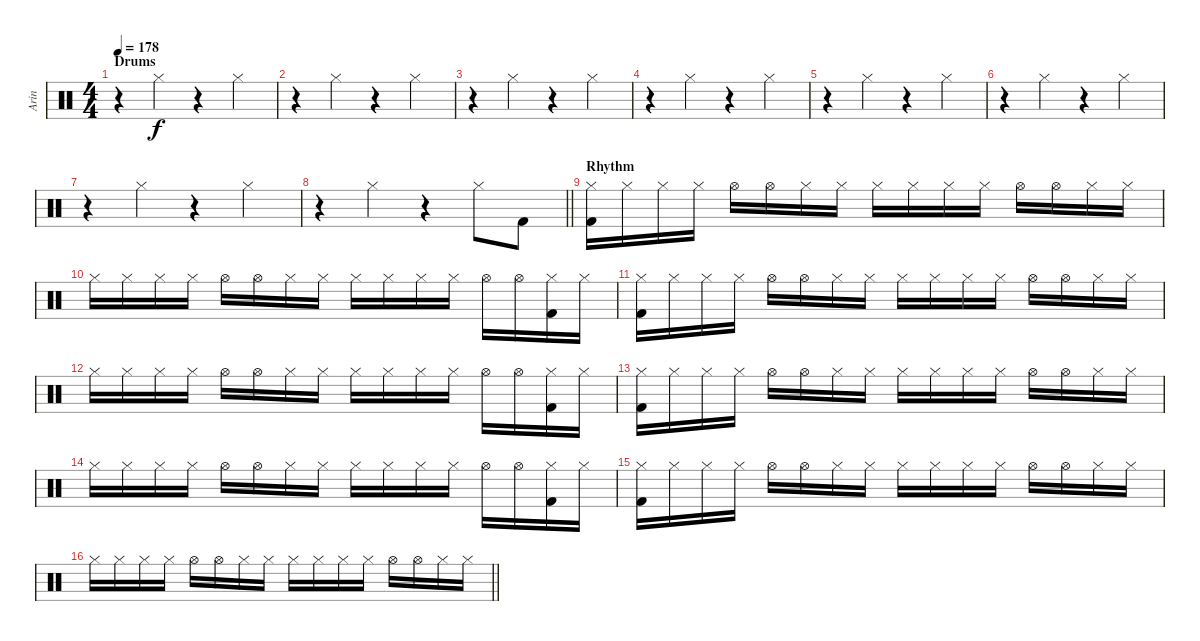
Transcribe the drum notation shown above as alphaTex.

\track ("Arin" "Arin") {instrument percussion}
\staff {score}
\articulation defaults
\ts (4 4)
\section ("" "Drums")
\tempo 178
\clef neutral
\ks c
r.4{dy f} "Hi-Hat (closed)".4 r.4 "Hi-Hat (closed)".4 |
r.4 "Hi-Hat (closed)".4 r.4 "Hi-Hat (closed)".4 |
r.4 "Hi-Hat (closed)".4 r.4 "Hi-Hat (closed)".4 |
r.4 "Hi-Hat (closed)".4 r.4 "Hi-Hat (closed)".4 |
r.4 "Hi-Hat (closed)".4 r.4 "Hi-Hat (closed)".4 |
r.4 "Hi-Hat (closed)".4 r.4 "Hi-Hat (closed)".4 |
r.4 "Hi-Hat (closed)".4 r.4 "Hi-Hat (closed)".4 |
\barLineRight lightlight
r.4 "Hi-Hat (closed)".4 r.4 "Hi-Hat (closed)".8 "Kick (hit) 2".8 |
\section ("" "Rhythm")
("Hi-Hat (closed)" "Kick (hit) 2").16 "Hi-Hat (closed)".16 "Hi-Hat (closed)".16 "Hi-Hat (closed)".16 "Hi-Hat (open)".16 "Hi-Hat (open)".16 "Hi-Hat (closed)".16 "Hi-Hat (closed)".16 "Hi-Hat (closed)".16 "Hi-Hat (closed)".16 "Hi-Hat (closed)".16 "Hi-Hat (closed)".16 "Hi-Hat (open)".16 "Hi-Hat (open)".16 "Hi-Hat (closed)".16 "Hi-Hat (closed)".16 |
"Hi-Hat (closed)".16 "Hi-Hat (closed)".16 "Hi-Hat (closed)".16 "Hi-Hat (closed)".16 "Hi-Hat (open)".16 "Hi-Hat (open)".16 "Hi-Hat (closed)".16 "Hi-Hat (closed)".16 "Hi-Hat (closed)".16 "Hi-Hat (closed)".16 "Hi-Hat (closed)".16 "Hi-Hat (closed)".16 "Hi-Hat (open)".16 "Hi-Hat (open)".16 ("Hi-Hat (closed)" "Kick (hit) 2").16 "Hi-Hat (closed)".16 |
("Hi-Hat (closed)" "Kick (hit) 2").16 "Hi-Hat (closed)".16 "Hi-Hat (closed)".16 "Hi-Hat (closed)".16 "Hi-Hat (open)".16 "Hi-Hat (open)".16 "Hi-Hat (closed)".16 "Hi-Hat (closed)".16 "Hi-Hat (closed)".16 "Hi-Hat (closed)".16 "Hi-Hat (closed)".16 "Hi-Hat (closed)".16 "Hi-Hat (open)".16 "Hi-Hat (open)".16 "Hi-Hat (closed)".16 "Hi-Hat (closed)".16 |
"Hi-Hat (closed)".16 "Hi-Hat (closed)".16 "Hi-Hat (closed)".16 "Hi-Hat (closed)".16 "Hi-Hat (open)".16 "Hi-Hat (open)".16 "Hi-Hat (closed)".16 "Hi-Hat (closed)".16 "Hi-Hat (closed)".16 "Hi-Hat (closed)".16 "Hi-Hat (closed)".16 "Hi-Hat (closed)".16 "Hi-Hat (open)".16 "Hi-Hat (open)".16 ("Hi-Hat (closed)" "Kick (hit) 2").16 "Hi-Hat (closed)".16 |
("Hi-Hat (closed)" "Kick (hit) 2").16 "Hi-Hat (closed)".16 "Hi-Hat (closed)".16 "Hi-Hat (closed)".16 "Hi-Hat (open)".16 "Hi-Hat (open)".16 "Hi-Hat (closed)".16 "Hi-Hat (closed)".16 "Hi-Hat (closed)".16 "Hi-Hat (closed)".16 "Hi-Hat (closed)".16 "Hi-Hat (closed)".16 "Hi-Hat (open)".16 "Hi-Hat (open)".16 "Hi-Hat (closed)".16 "Hi-Hat (closed)".16 |
"Hi-Hat (closed)".16 "Hi-Hat (closed)".16 "Hi-Hat (closed)".16 "Hi-Hat (closed)".16 "Hi-Hat (open)".16 "Hi-Hat (open)".16 "Hi-Hat (closed)".16 "Hi-Hat (closed)".16 "Hi-Hat (closed)".16 "Hi-Hat (closed)".16 "Hi-Hat (closed)".16 "Hi-Hat (closed)".16 "Hi-Hat (open)".16 "Hi-Hat (open)".16 ("Hi-Hat (closed)" "Kick (hit) 2").16 "Hi-Hat (closed)".16 |
("Hi-Hat (closed)" "Kick (hit) 2").16 "Hi-Hat (closed)".16 "Hi-Hat (closed)".16 "Hi-Hat (closed)".16 "Hi-Hat (open)".16 "Hi-Hat (open)".16 "Hi-Hat (closed)".16 "Hi-Hat (closed)".16 "Hi-Hat (closed)".16 "Hi-Hat (closed)".16 "Hi-Hat (closed)".16 "Hi-Hat (closed)".16 "Hi-Hat (open)".16 "Hi-Hat (open)".16 "Hi-Hat (closed)".16 "Hi-Hat (closed)".16 |
\barLineRight lightlight "Hi-Hat (closed)".16 "Hi-Hat (closed)".16 "Hi-Hat (closed)".16 "Hi-Hat (closed)".16 "Hi-Hat (open)".16 "Hi-Hat (open)".16 "Hi-Hat (closed)".16 "Hi-Hat (closed)".16 "Hi-Hat (closed)".16 "Hi-Hat (closed)".16 "Hi-Hat (closed)".16 "Hi-Hat (closed)".16 "Hi-Hat (open)".16 "Hi-Hat (open)".16 "Hi-Hat (closed)".16 "Hi-Hat (closed)".16
